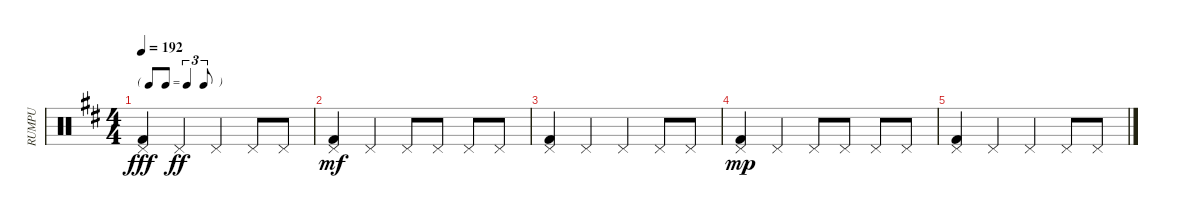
\track ("RUMPU" "RUMPU") {instrument percussion}
\staff {score}
\articulation defaults
\ts (4 4)
\tf triplet8th
\tempo 192
\clef neutral
\ks d
("Pedal Hi-Hat (hit)" "Kick (hit) 2").4{dy fff} "Pedal Hi-Hat (hit)".4{dy ff} "Pedal Hi-Hat (hit)".4 "Pedal Hi-Hat (hit)".8 "Pedal Hi-Hat (hit)".8 |
("Pedal Hi-Hat (hit)" "Kick (hit) 2").4{dy mf} "Pedal Hi-Hat (hit)".4 "Pedal Hi-Hat (hit)".8 "Pedal Hi-Hat (hit)".8 "Pedal Hi-Hat (hit)".8 "Pedal Hi-Hat (hit)".8 |
("Pedal Hi-Hat (hit)" "Kick (hit) 2").4 "Pedal Hi-Hat (hit)".4 "Pedal Hi-Hat (hit)".4 "Pedal Hi-Hat (hit)".8 "Pedal Hi-Hat (hit)".8 |
("Pedal Hi-Hat (hit)" "Kick (hit) 2").4{dy mp} "Pedal Hi-Hat (hit)".4 "Pedal Hi-Hat (hit)".8 "Pedal Hi-Hat (hit)".8 "Pedal Hi-Hat (hit)".8 "Pedal Hi-Hat (hit)".8 |
("Pedal Hi-Hat (hit)" "Kick (hit) 2").4 "Pedal Hi-Hat (hit)".4 "Pedal Hi-Hat (hit)".4 "Pedal Hi-Hat (hit)".8 "Pedal Hi-Hat (hit)".8
